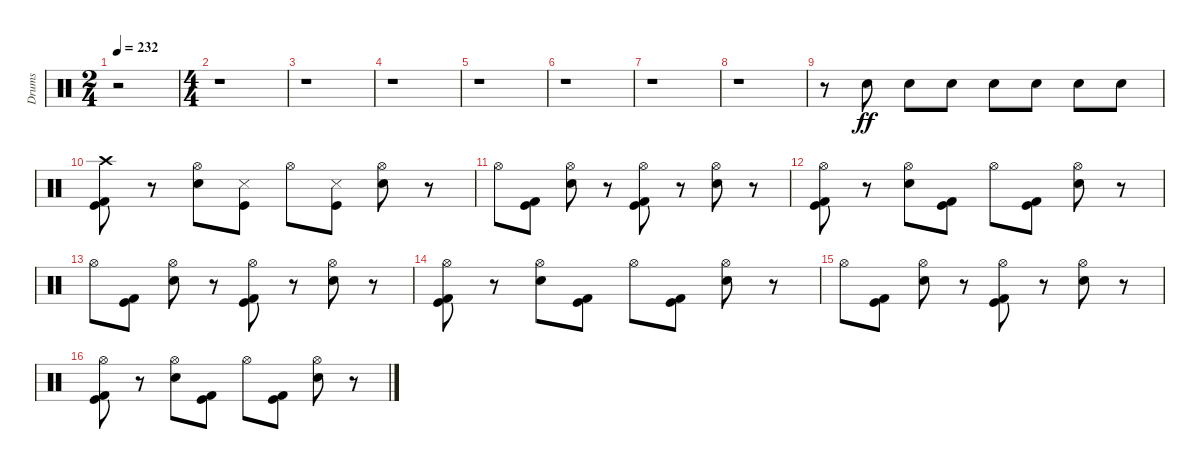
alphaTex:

\track ("Drums" "Drums") {instrument percussion}
\staff {score}
\articulation defaults
\ts (2 4)
\tempo 232
\clef neutral
\ks c
r.2{dy ff} |
\ts (4 4)
r.1 |
r.1 |
r.1 |
r.1 |
r.1 |
r.1 |
r.1 |
r.8 "Snare (hit) 2".8 "Snare (hit) 2".8 "Snare (hit) 2".8 "Snare (hit) 2".8 "Snare (hit) 2".8 "Snare (hit) 2".8 "Snare (hit) 2".8 |
("Kick (hit)" "Kick (hit) 2" "Crash high (hit)").8 r.8 ("Snare (hit) 2" "Hi-Hat (open)").8 ("Kick (hit)" "Snare (side stick) 3").8 "Hi-Hat (open)".8 ("Kick (hit)" "Snare (side stick) 3").8 ("Snare (hit) 2" "Hi-Hat (open)").8 r.8 |
"Hi-Hat (open)".8 ("Kick (hit)" "Kick (hit) 2").8 ("Snare (hit) 2" "Hi-Hat (open)").8 r.8 ("Kick (hit)" "Kick (hit) 2" "Hi-Hat (open)").8 r.8 ("Snare (hit) 2" "Hi-Hat (open)").8 r.8 |
("Kick (hit)" "Kick (hit) 2" "Hi-Hat (open)").8 r.8 ("Snare (hit) 2" "Hi-Hat (open)").8 ("Kick (hit)" "Kick (hit) 2").8 "Hi-Hat (open)".8 ("Kick (hit)" "Kick (hit) 2").8 ("Snare (hit) 2" "Hi-Hat (open)").8 r.8 |
"Hi-Hat (open)".8 ("Kick (hit)" "Kick (hit) 2").8 ("Snare (hit) 2" "Hi-Hat (open)").8 r.8 ("Kick (hit)" "Kick (hit) 2" "Hi-Hat (open)").8 r.8 ("Snare (hit) 2" "Hi-Hat (open)").8 r.8 |
("Kick (hit)" "Kick (hit) 2" "Hi-Hat (open)").8 r.8 ("Snare (hit) 2" "Hi-Hat (open)").8 ("Kick (hit)" "Kick (hit) 2").8 "Hi-Hat (open)".8 ("Kick (hit)" "Kick (hit) 2").8 ("Snare (hit) 2" "Hi-Hat (open)").8 r.8 |
"Hi-Hat (open)".8 ("Kick (hit)" "Kick (hit) 2").8 ("Snare (hit) 2" "Hi-Hat (open)").8 r.8 ("Kick (hit)" "Kick (hit) 2" "Hi-Hat (open)").8 r.8 ("Snare (hit) 2" "Hi-Hat (open)").8 r.8 |
("Kick (hit)" "Kick (hit) 2" "Hi-Hat (open)").8 r.8 ("Snare (hit) 2" "Hi-Hat (open)").8 ("Kick (hit)" "Kick (hit) 2").8 "Hi-Hat (open)".8 ("Kick (hit)" "Kick (hit) 2").8 ("Snare (hit) 2" "Hi-Hat (open)").8 r.8
